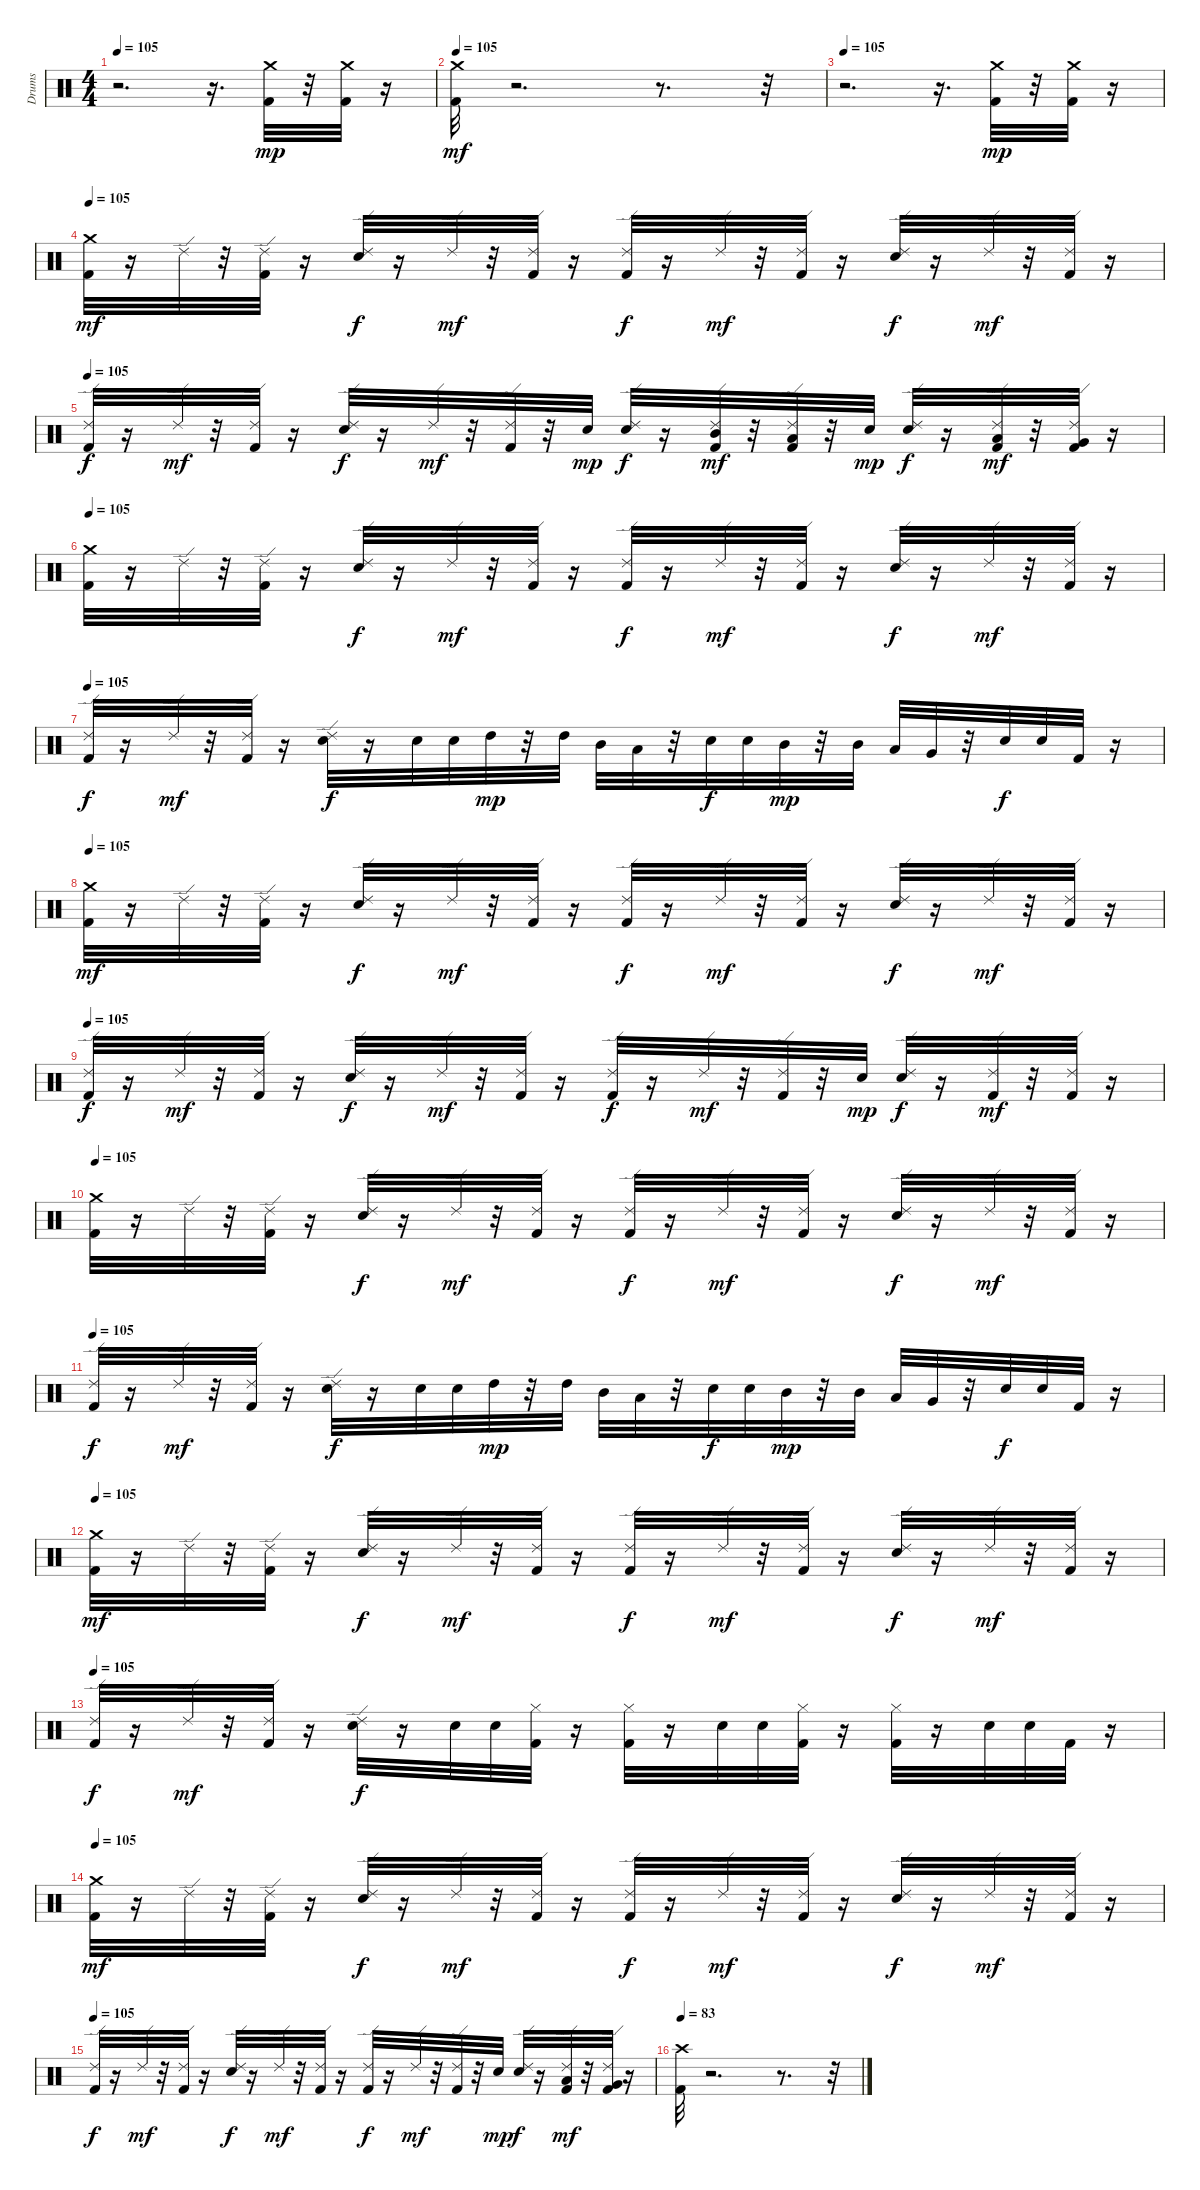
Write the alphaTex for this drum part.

\track ("Drums" "Drums") {instrument percussion}
\staff {score}
\articulation defaults
\ts (4 4)
\tempo 105
\clef neutral
\ks c
r.2{d dy mp} r.16{d} ("Kick (hit) 2" "Crash medium (hit)").32 r.32 ("Kick (hit) 2" "Crash medium (hit)").32 r.16 |
\tempo 105
("Kick (hit) 2" "Crash medium (hit)").32{dy mf} r.2{d} r.8{d} r.32 |
\tempo 105
r.2{d} r.16{d} ("Kick (hit) 2" "Crash medium (hit)").32{dy mp} r.32 ("Kick (hit) 2" "Crash medium (hit)").32 r.16 |
\tempo 105
("Kick (hit) 2" "Crash medium (hit)").32{dy mf} r.16 "Ride (edge) 2".32 r.32 ("Kick (hit) 2" "Ride (edge) 2").32 r.16 ("Snare (hit) 2" "Ride (edge) 2").32{dy f} r.16 "Ride (edge) 2".32{dy mf} r.32 ("Kick (hit) 2" "Ride (edge) 2").32 r.16 ("Kick (hit) 2" "Ride (edge) 2").32{dy f} r.16 "Ride (edge) 2".32{dy mf} r.32 ("Kick (hit) 2" "Ride (edge) 2").32 r.16 ("Snare (hit) 2" "Ride (edge) 2").32{dy f} r.16 "Ride (edge) 2".32{dy mf} r.32 ("Kick (hit) 2" "Ride (edge) 2").32 r.16 |
\tempo 105
("Kick (hit) 2" "Ride (edge) 2").32{dy f} r.16 "Ride (edge) 2".32{dy mf} r.32 ("Kick (hit) 2" "Ride (edge) 2").32 r.16 ("Snare (hit) 2" "Ride (edge) 2").32{dy f} r.16 "Ride (edge) 2".32{dy mf} r.32 ("Kick (hit) 2" "Ride (edge) 2").32 r.32 "Snare (hit) 2".32{dy mp} ("Snare (hit) 2" "Ride (edge) 2").32{dy f} r.16 ("Kick (hit) 2" "Mid Tom (hit)" "Ride (edge) 2").32{dy mf} r.32 ("Kick (hit) 2" "Low Tom (hit)" "Ride (edge) 2").32 r.32 "Snare (hit) 2".32{dy mp} ("Snare (hit) 2" "Ride (edge) 2").32{dy f} r.16 ("Kick (hit) 2" "Low Tom (hit)" "Ride (edge) 2").32{dy mf} r.32 ("Kick (hit) 2" "Very Low Tom (hit)" "Ride (edge) 2").32 r.16 |
\tempo 105
("Kick (hit) 2" "Crash medium (hit)").32 r.16 "Ride (edge) 2".32 r.32 ("Kick (hit) 2" "Ride (edge) 2").32 r.16 ("Snare (hit) 2" "Ride (edge) 2").32{dy f} r.16 "Ride (edge) 2".32{dy mf} r.32 ("Kick (hit) 2" "Ride (edge) 2").32 r.16 ("Kick (hit) 2" "Ride (edge) 2").32{dy f} r.16 "Ride (edge) 2".32{dy mf} r.32 ("Kick (hit) 2" "Ride (edge) 2").32 r.16 ("Snare (hit) 2" "Ride (edge) 2").32{dy f} r.16 "Ride (edge) 2".32{dy mf} r.32 ("Kick (hit) 2" "Ride (edge) 2").32 r.16 |
\tempo 105
("Kick (hit) 2" "Ride (edge) 2").32{dy f} r.16 "Ride (edge) 2".32{dy mf} r.32 ("Kick (hit) 2" "Ride (edge) 2").32 r.16 ("Snare (hit) 2" "Ride (edge) 2").32{dy f} r.16 "Snare (hit) 2".32 "Snare (hit) 2".32 "High Tom (hit)".32{dy mp} r.32 "High Tom (hit)".32 "Mid Tom (hit)".32 "Low Tom (hit)".32 r.32 "Snare (hit) 2".32{dy f} "Snare (hit) 2".32 "Mid Tom (hit)".32{dy mp} r.32 "Mid Tom (hit)".32 "Low Tom (hit)".32 "Very Low Tom (hit)".32 r.32 "Snare (hit) 2".32{dy f} "Snare (hit) 2".32 "Kick (hit) 2".32 r.16 |
\tempo 105
("Kick (hit) 2" "Crash medium (hit)").32{dy mf} r.16 "Ride (edge) 2".32 r.32 ("Kick (hit) 2" "Ride (edge) 2").32 r.16 ("Snare (hit) 2" "Ride (edge) 2").32{dy f} r.16 "Ride (edge) 2".32{dy mf} r.32 ("Kick (hit) 2" "Ride (edge) 2").32 r.16 ("Kick (hit) 2" "Ride (edge) 2").32{dy f} r.16 "Ride (edge) 2".32{dy mf} r.32 ("Kick (hit) 2" "Ride (edge) 2").32 r.16 ("Snare (hit) 2" "Ride (edge) 2").32{dy f} r.16 "Ride (edge) 2".32{dy mf} r.32 ("Kick (hit) 2" "Ride (edge) 2").32 r.16 |
\tempo 105
("Kick (hit) 2" "Ride (edge) 2").32{dy f} r.16 "Ride (edge) 2".32{dy mf} r.32 ("Kick (hit) 2" "Ride (edge) 2").32 r.16 ("Snare (hit) 2" "Ride (edge) 2").32{dy f} r.16 "Ride (edge) 2".32{dy mf} r.32 ("Kick (hit) 2" "Ride (edge) 2").32 r.16 ("Kick (hit) 2" "Ride (edge) 2").32{dy f} r.16 "Ride (edge) 2".32{dy mf} r.32 ("Kick (hit) 2" "Ride (edge) 2").32 r.32 "Snare (hit) 2".32{dy mp} ("Snare (hit) 2" "Ride (edge) 2").32{dy f} r.16 ("Kick (hit) 2" "Ride (edge) 2").32{dy mf} r.32 ("Kick (hit) 2" "Ride (edge) 2").32 r.16 |
\tempo 105
("Kick (hit) 2" "Crash medium (hit)").32 r.16 "Ride (edge) 2".32 r.32 ("Kick (hit) 2" "Ride (edge) 2").32 r.16 ("Snare (hit) 2" "Ride (edge) 2").32{dy f} r.16 "Ride (edge) 2".32{dy mf} r.32 ("Kick (hit) 2" "Ride (edge) 2").32 r.16 ("Kick (hit) 2" "Ride (edge) 2").32{dy f} r.16 "Ride (edge) 2".32{dy mf} r.32 ("Kick (hit) 2" "Ride (edge) 2").32 r.16 ("Snare (hit) 2" "Ride (edge) 2").32{dy f} r.16 "Ride (edge) 2".32{dy mf} r.32 ("Kick (hit) 2" "Ride (edge) 2").32 r.16 |
\tempo 105
("Kick (hit) 2" "Ride (edge) 2").32{dy f} r.16 "Ride (edge) 2".32{dy mf} r.32 ("Kick (hit) 2" "Ride (edge) 2").32 r.16 ("Snare (hit) 2" "Ride (edge) 2").32{dy f} r.16 "Snare (hit) 2".32 "Snare (hit) 2".32 "High Tom (hit)".32{dy mp} r.32 "High Tom (hit)".32 "Mid Tom (hit)".32 "Low Tom (hit)".32 r.32 "Snare (hit) 2".32{dy f} "Snare (hit) 2".32 "Mid Tom (hit)".32{dy mp} r.32 "Mid Tom (hit)".32 "Low Tom (hit)".32 "Very Low Tom (hit)".32 r.32 "Snare (hit) 2".32{dy f} "Snare (hit) 2".32 "Kick (hit) 2".32 r.16 |
\tempo 105
("Kick (hit) 2" "Crash medium (hit)").32{dy mf} r.16 "Ride (edge) 2".32 r.32 ("Kick (hit) 2" "Ride (edge) 2").32 r.16 ("Snare (hit) 2" "Ride (edge) 2").32{dy f} r.16 "Ride (edge) 2".32{dy mf} r.32 ("Kick (hit) 2" "Ride (edge) 2").32 r.16 ("Kick (hit) 2" "Ride (edge) 2").32{dy f} r.16 "Ride (edge) 2".32{dy mf} r.32 ("Kick (hit) 2" "Ride (edge) 2").32 r.16 ("Snare (hit) 2" "Ride (edge) 2").32{dy f} r.16 "Ride (edge) 2".32{dy mf} r.32 ("Kick (hit) 2" "Ride (edge) 2").32 r.16 |
\tempo 105
("Kick (hit) 2" "Ride (edge) 2").32{dy f} r.16 "Ride (edge) 2".32{dy mf} r.32 ("Kick (hit) 2" "Ride (edge) 2").32 r.16 ("Snare (hit) 2" "Ride (edge) 2").32{dy f} r.16 "Snare (hit) 2".32 "Snare (hit) 2".32 ("Kick (hit) 2" "Hi-Hat (closed)").32 r.16 ("Kick (hit) 2" "Hi-Hat (closed)").32 r.16 "Snare (hit) 2".32 "Snare (hit) 2".32 ("Kick (hit) 2" "Hi-Hat (closed)").32 r.16 ("Kick (hit) 2" "Hi-Hat (closed)").32 r.16 "Snare (hit) 2".32 "Snare (hit) 2".32 "Kick (hit) 2".32 r.16 |
\tempo 105
("Kick (hit) 2" "Crash medium (hit)").32{dy mf} r.16 "Ride (edge) 2".32 r.32 ("Kick (hit) 2" "Ride (edge) 2").32 r.16 ("Snare (hit) 2" "Ride (edge) 2").32{dy f} r.16 "Ride (edge) 2".32{dy mf} r.32 ("Kick (hit) 2" "Ride (edge) 2").32 r.16 ("Kick (hit) 2" "Ride (edge) 2").32{dy f} r.16 "Ride (edge) 2".32{dy mf} r.32 ("Kick (hit) 2" "Ride (edge) 2").32 r.16 ("Snare (hit) 2" "Ride (edge) 2").32{dy f} r.16 "Ride (edge) 2".32{dy mf} r.32 ("Kick (hit) 2" "Ride (edge) 2").32 r.16 |
\tempo 105
("Kick (hit) 2" "Ride (edge) 2").32{dy f} r.16 "Ride (edge) 2".32{dy mf} r.32 ("Kick (hit) 2" "Ride (edge) 2").32 r.16 ("Snare (hit) 2" "Ride (edge) 2").32{dy f} r.16 "Ride (edge) 2".32{dy mf} r.32 ("Kick (hit) 2" "Ride (edge) 2").32 r.16 ("Kick (hit) 2" "Ride (edge) 2").32{dy f} r.16 "Ride (edge) 2".32{dy mf} r.32 ("Kick (hit) 2" "Ride (edge) 2").32 r.32 "Snare (hit) 2".32{dy mp} ("Snare (hit) 2" "Ride (edge) 2").32{dy f} r.16 ("Kick (hit) 2" "Low Tom (hit)" "Ride (edge) 2").32{dy mf} r.32 ("Kick (hit) 2" "Very Low Tom (hit)" "Ride (edge) 2").32 r.16 |
\tempo 83
("Kick (hit) 2" "Crash high (hit)").32{volume 11} r.2{d} r.8{d} r.32
